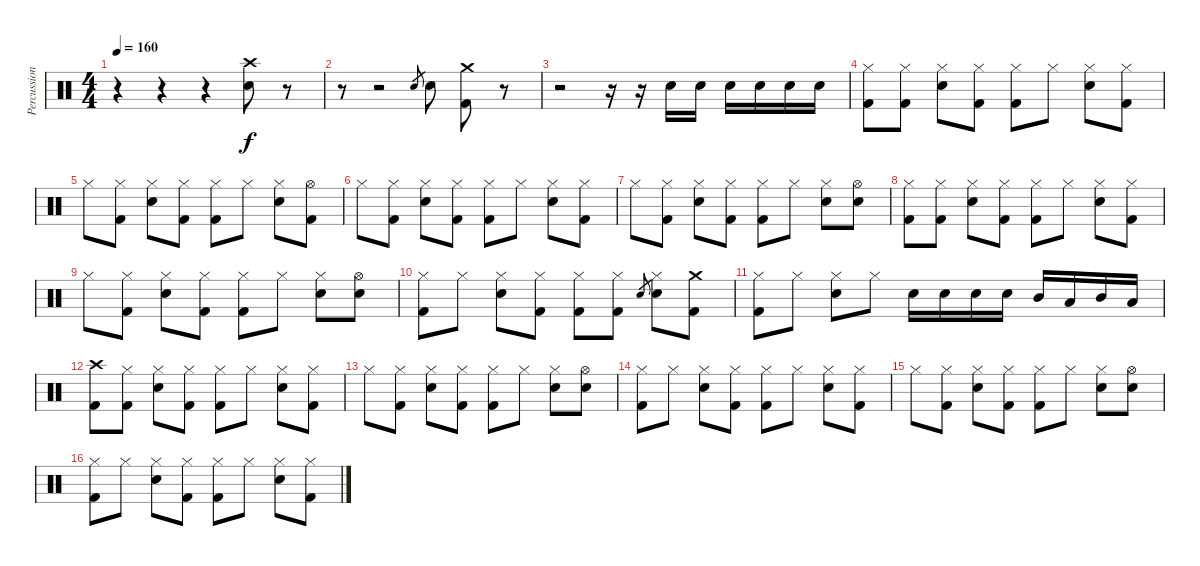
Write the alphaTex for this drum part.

\track ("Percussions" "Percussion") {instrument percussion}
\staff {score}
\articulation defaults
\ts (4 4)
\tempo 160
\clef neutral
\ks c
r.4{dy f} r.4 r.4 ("Crash high (hit)" "Electric Snare (hit)").8 r.8 |
r.8 r.2 "Electric Snare (hit)".8{gr} "Electric Snare (hit)".8 ("Crash medium (hit)" "Kick (hit) 2").8 r.8 |
r.2 r.16 r.16 "Electric Snare (hit)".16 "Electric Snare (hit)".16 "Electric Snare (hit)".16 "Electric Snare (hit)".16 "Electric Snare (hit)".16 "Electric Snare (hit)".16 |
("Hi-Hat (closed)" "Kick (hit) 2").8 ("Hi-Hat (closed)" "Kick (hit) 2").8 ("Hi-Hat (closed)" "Electric Snare (hit)").8 ("Hi-Hat (closed)" "Kick (hit) 2").8 ("Hi-Hat (closed)" "Kick (hit) 2").8 "Hi-Hat (closed)".8 ("Hi-Hat (closed)" "Electric Snare (hit)").8 ("Hi-Hat (closed)" "Kick (hit) 2").8 |
"Hi-Hat (closed)".8 ("Hi-Hat (closed)" "Kick (hit) 2").8 ("Hi-Hat (closed)" "Electric Snare (hit)").8 ("Hi-Hat (closed)" "Kick (hit) 2").8 ("Hi-Hat (closed)" "Kick (hit) 2").8 "Hi-Hat (closed)".8 ("Hi-Hat (closed)" "Electric Snare (hit)").8 ("Hi-Hat (open)" "Kick (hit) 2").8 |
"Hi-Hat (closed)".8 ("Hi-Hat (closed)" "Kick (hit) 2").8 ("Hi-Hat (closed)" "Electric Snare (hit)").8 ("Hi-Hat (closed)" "Kick (hit) 2").8 ("Hi-Hat (closed)" "Kick (hit) 2").8 "Hi-Hat (closed)".8 ("Hi-Hat (closed)" "Electric Snare (hit)").8 ("Hi-Hat (closed)" "Kick (hit) 2").8 |
"Hi-Hat (closed)".8 ("Hi-Hat (closed)" "Kick (hit) 2").8 ("Hi-Hat (closed)" "Electric Snare (hit)").8 ("Hi-Hat (closed)" "Kick (hit) 2").8 ("Hi-Hat (closed)" "Kick (hit) 2").8 "Hi-Hat (closed)".8 ("Hi-Hat (closed)" "Electric Snare (hit)").8 ("Hi-Hat (open)" "Electric Snare (hit)").8 |
("Hi-Hat (closed)" "Kick (hit) 2").8 ("Hi-Hat (closed)" "Kick (hit) 2").8 ("Hi-Hat (closed)" "Electric Snare (hit)").8 ("Hi-Hat (closed)" "Kick (hit) 2").8 ("Hi-Hat (closed)" "Kick (hit) 2").8 "Hi-Hat (closed)".8 ("Hi-Hat (closed)" "Electric Snare (hit)").8 ("Hi-Hat (closed)" "Kick (hit) 2").8 |
"Hi-Hat (closed)".8 ("Hi-Hat (closed)" "Kick (hit) 2").8 ("Hi-Hat (closed)" "Electric Snare (hit)").8 ("Hi-Hat (closed)" "Kick (hit) 2").8 ("Hi-Hat (closed)" "Kick (hit) 2").8 "Hi-Hat (closed)".8 ("Hi-Hat (closed)" "Electric Snare (hit)").8 ("Hi-Hat (open)" "Electric Snare (hit)").8 |
("Hi-Hat (closed)" "Kick (hit) 2").8 "Hi-Hat (closed)".8 ("Hi-Hat (closed)" "Electric Snare (hit)").8 ("Hi-Hat (closed)" "Kick (hit) 2").8 ("Hi-Hat (closed)" "Kick (hit) 2").8 ("Hi-Hat (closed)" "Kick (hit) 2").8 "Electric Snare (hit)".8{gr} ("Hi-Hat (closed)" "Electric Snare (hit)").8 ("Crash medium (hit)" "Kick (hit) 2").8 |
("Hi-Hat (closed)" "Kick (hit) 2").8 "Hi-Hat (closed)".8 ("Hi-Hat (closed)" "Electric Snare (hit)").8 "Hi-Hat (closed)".8 "Electric Snare (hit)".16 "Electric Snare (hit)".16 "Electric Snare (hit)".16 "Electric Snare (hit)".16 "Mid Tom (hit)".16 "Low Tom (hit)".16 "Mid Tom (hit)".16 "Low Tom (hit)".16 |
("Crash high (hit)" "Kick (hit) 2").8 ("Hi-Hat (closed)" "Kick (hit) 2").8 ("Hi-Hat (closed)" "Electric Snare (hit)").8 ("Hi-Hat (closed)" "Kick (hit) 2").8 ("Hi-Hat (closed)" "Kick (hit) 2").8 "Hi-Hat (closed)".8 ("Hi-Hat (closed)" "Electric Snare (hit)").8 ("Hi-Hat (closed)" "Kick (hit) 2").8 |
"Hi-Hat (closed)".8 ("Hi-Hat (closed)" "Kick (hit) 2").8 ("Hi-Hat (closed)" "Electric Snare (hit)").8 ("Hi-Hat (closed)" "Kick (hit) 2").8 ("Hi-Hat (closed)" "Kick (hit) 2").8 "Hi-Hat (closed)".8 ("Hi-Hat (closed)" "Electric Snare (hit)").8 ("Hi-Hat (open)" "Electric Snare (hit)").8 |
("Hi-Hat (closed)" "Kick (hit) 2").8 "Hi-Hat (closed)".8 ("Hi-Hat (closed)" "Electric Snare (hit)").8 ("Hi-Hat (closed)" "Kick (hit) 2").8 ("Hi-Hat (closed)" "Kick (hit) 2").8 "Hi-Hat (closed)".8 ("Hi-Hat (closed)" "Electric Snare (hit)").8 ("Hi-Hat (closed)" "Kick (hit) 2").8 |
"Hi-Hat (closed)".8 ("Hi-Hat (closed)" "Kick (hit) 2").8 ("Hi-Hat (closed)" "Electric Snare (hit)").8 ("Hi-Hat (closed)" "Kick (hit) 2").8 ("Hi-Hat (closed)" "Kick (hit) 2").8 "Hi-Hat (closed)".8 ("Hi-Hat (closed)" "Electric Snare (hit)").8 ("Hi-Hat (open)" "Electric Snare (hit)").8 |
("Hi-Hat (closed)" "Kick (hit) 2").8 "Hi-Hat (closed)".8 ("Hi-Hat (closed)" "Electric Snare (hit)").8 ("Hi-Hat (closed)" "Kick (hit) 2").8 ("Hi-Hat (closed)" "Kick (hit) 2").8 "Hi-Hat (closed)".8 ("Hi-Hat (closed)" "Electric Snare (hit)").8 ("Hi-Hat (closed)" "Kick (hit) 2").8
